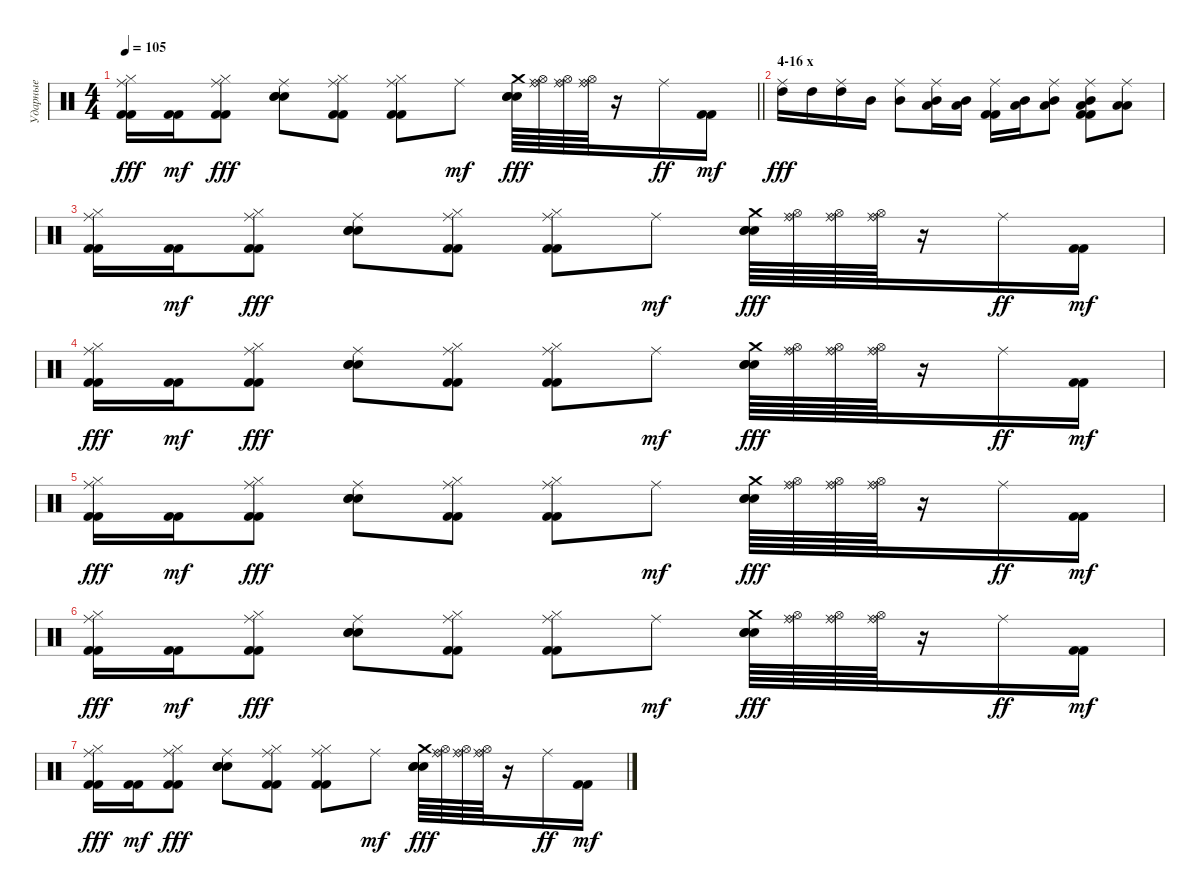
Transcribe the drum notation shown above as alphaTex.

\track ("Ударные" "Ударные") {instrument percussion}
\staff {score}
\articulation defaults
\ts (4 4)
\tempo 105
\clef neutral
\barLineRight lightlight
\ks c
("Ride (middle)" "Hi-Hat (closed)" "Kick (hit) 2" "Kick (hit) 2").16{dy fff} ("Kick (hit) 2" "Kick (hit) 2").16{dy mf} ("Ride (middle)" "Hi-Hat (closed)" "Kick (hit) 2" "Kick (hit) 2").8{dy fff} ("Ride (middle)" "Snare (hit) 2" "Electric Snare (hit)" "Hand Clap (hit)").8 ("Ride (middle)" "Hi-Hat (closed)" "Kick (hit) 2" "Kick (hit) 2").8 ("Ride (middle)" "Hi-Hat (closed)" "Kick (hit) 2" "Kick (hit) 2").8 "Ride (middle)".8{dy mf} ("Crash medium (hit)" "Snare (hit) 2" "Electric Snare (hit)" "Hand Clap (hit)").64{dy fff} ("Ride (middle)" "Hi-Hat (open)" "Ride (bell)").64 ("Ride (middle)" "Hi-Hat (open)" "Ride (bell)").64 ("Ride (middle)" "Hi-Hat (open)" "Ride (bell)").64 r.16 "Ride (middle)".16{dy ff} ("Kick (hit) 2" "Kick (hit) 2").16{dy mf} |
\section ("" "4-16 x")
("Ride (middle)" "High Tom (hit)").16{dy fff} "High Tom (hit)".16 ("Ride (middle)" "High Tom (hit)").16 "Mid Tom (hit)".16 ("Ride (middle)" "Mid Tom (hit)").8 ("Ride (middle)" "Low Tom (hit)" "Mid Tom (hit)").16 ("Low Tom (hit)" "Mid Tom (hit)").16 ("Ride (middle)" "Kick (hit) 2" "Kick (hit) 2").16 ("Low Tom (hit)" "Mid Tom (hit)").16 ("Ride (middle)" "Low Tom (hit)" "Mid Tom (hit)").8 ("Ride (middle)" "Low Tom (hit)" "Mid Tom (hit)" "Kick (hit) 2" "Kick (hit) 2").8 ("Ride (middle)" "Low Tom (hit)" "Low Tom (hit)").8 |
("Ride (middle)" "Hi-Hat (closed)" "Kick (hit) 2" "Kick (hit) 2").16 ("Kick (hit) 2" "Kick (hit) 2").16{dy mf} ("Ride (middle)" "Hi-Hat (closed)" "Kick (hit) 2" "Kick (hit) 2").8{dy fff} ("Ride (middle)" "Snare (hit) 2" "Electric Snare (hit)" "Hand Clap (hit)").8 ("Ride (middle)" "Hi-Hat (closed)" "Kick (hit) 2" "Kick (hit) 2").8 ("Ride (middle)" "Hi-Hat (closed)" "Kick (hit) 2" "Kick (hit) 2").8 "Ride (middle)".8{dy mf} ("Crash medium (hit)" "Snare (hit) 2" "Electric Snare (hit)" "Hand Clap (hit)").64{dy fff} ("Ride (middle)" "Hi-Hat (open)" "Ride (bell)").64 ("Ride (middle)" "Hi-Hat (open)" "Ride (bell)").64 ("Ride (middle)" "Hi-Hat (open)" "Ride (bell)").64 r.16 "Ride (middle)".16{dy ff} ("Kick (hit) 2" "Kick (hit) 2").16{dy mf} |
("Ride (middle)" "Hi-Hat (closed)" "Kick (hit) 2" "Kick (hit) 2").16{dy fff} ("Kick (hit) 2" "Kick (hit) 2").16{dy mf} ("Ride (middle)" "Hi-Hat (closed)" "Kick (hit) 2" "Kick (hit) 2").8{dy fff} ("Ride (middle)" "Snare (hit) 2" "Electric Snare (hit)" "Hand Clap (hit)").8 ("Ride (middle)" "Hi-Hat (closed)" "Kick (hit) 2" "Kick (hit) 2").8 ("Ride (middle)" "Hi-Hat (closed)" "Kick (hit) 2" "Kick (hit) 2").8 "Ride (middle)".8{dy mf} ("Crash medium (hit)" "Snare (hit) 2" "Electric Snare (hit)" "Hand Clap (hit)").64{dy fff} ("Ride (middle)" "Hi-Hat (open)" "Ride (bell)").64 ("Ride (middle)" "Hi-Hat (open)" "Ride (bell)").64 ("Ride (middle)" "Hi-Hat (open)" "Ride (bell)").64 r.16 "Ride (middle)".16{dy ff} ("Kick (hit) 2" "Kick (hit) 2").16{dy mf} |
("Ride (middle)" "Hi-Hat (closed)" "Kick (hit) 2" "Kick (hit) 2").16{dy fff} ("Kick (hit) 2" "Kick (hit) 2").16{dy mf} ("Ride (middle)" "Hi-Hat (closed)" "Kick (hit) 2" "Kick (hit) 2").8{dy fff} ("Ride (middle)" "Snare (hit) 2" "Electric Snare (hit)" "Hand Clap (hit)").8 ("Ride (middle)" "Hi-Hat (closed)" "Kick (hit) 2" "Kick (hit) 2").8 ("Ride (middle)" "Hi-Hat (closed)" "Kick (hit) 2" "Kick (hit) 2").8 "Ride (middle)".8{dy mf} ("Crash medium (hit)" "Snare (hit) 2" "Electric Snare (hit)" "Hand Clap (hit)").64{dy fff} ("Ride (middle)" "Hi-Hat (open)" "Ride (bell)").64 ("Ride (middle)" "Hi-Hat (open)" "Ride (bell)").64 ("Ride (middle)" "Hi-Hat (open)" "Ride (bell)").64 r.16 "Ride (middle)".16{dy ff} ("Kick (hit) 2" "Kick (hit) 2").16{dy mf} |
("Ride (middle)" "Hi-Hat (closed)" "Kick (hit) 2" "Kick (hit) 2").16{dy fff} ("Kick (hit) 2" "Kick (hit) 2").16{dy mf} ("Ride (middle)" "Hi-Hat (closed)" "Kick (hit) 2" "Kick (hit) 2").8{dy fff} ("Ride (middle)" "Snare (hit) 2" "Electric Snare (hit)" "Hand Clap (hit)").8 ("Ride (middle)" "Hi-Hat (closed)" "Kick (hit) 2" "Kick (hit) 2").8 ("Ride (middle)" "Hi-Hat (closed)" "Kick (hit) 2" "Kick (hit) 2").8 "Ride (middle)".8{dy mf} ("Crash medium (hit)" "Snare (hit) 2" "Electric Snare (hit)" "Hand Clap (hit)").64{dy fff} ("Ride (middle)" "Hi-Hat (open)" "Ride (bell)").64 ("Ride (middle)" "Hi-Hat (open)" "Ride (bell)").64 ("Ride (middle)" "Hi-Hat (open)" "Ride (bell)").64 r.16 "Ride (middle)".16{dy ff} ("Kick (hit) 2" "Kick (hit) 2").16{dy mf} |
("Ride (middle)" "Hi-Hat (closed)" "Kick (hit) 2" "Kick (hit) 2").16{dy fff} ("Kick (hit) 2" "Kick (hit) 2").16{dy mf} ("Ride (middle)" "Hi-Hat (closed)" "Kick (hit) 2" "Kick (hit) 2").8{dy fff} ("Ride (middle)" "Snare (hit) 2" "Electric Snare (hit)" "Hand Clap (hit)").8 ("Ride (middle)" "Hi-Hat (closed)" "Kick (hit) 2" "Kick (hit) 2").8 ("Ride (middle)" "Hi-Hat (closed)" "Kick (hit) 2" "Kick (hit) 2").8 "Ride (middle)".8{dy mf} ("Crash medium (hit)" "Snare (hit) 2" "Electric Snare (hit)" "Hand Clap (hit)").64{dy fff} ("Ride (middle)" "Hi-Hat (open)" "Ride (bell)").64 ("Ride (middle)" "Hi-Hat (open)" "Ride (bell)").64 ("Ride (middle)" "Hi-Hat (open)" "Ride (bell)").64 r.16 "Ride (middle)".16{dy ff} ("Kick (hit) 2" "Kick (hit) 2").16{dy mf}
